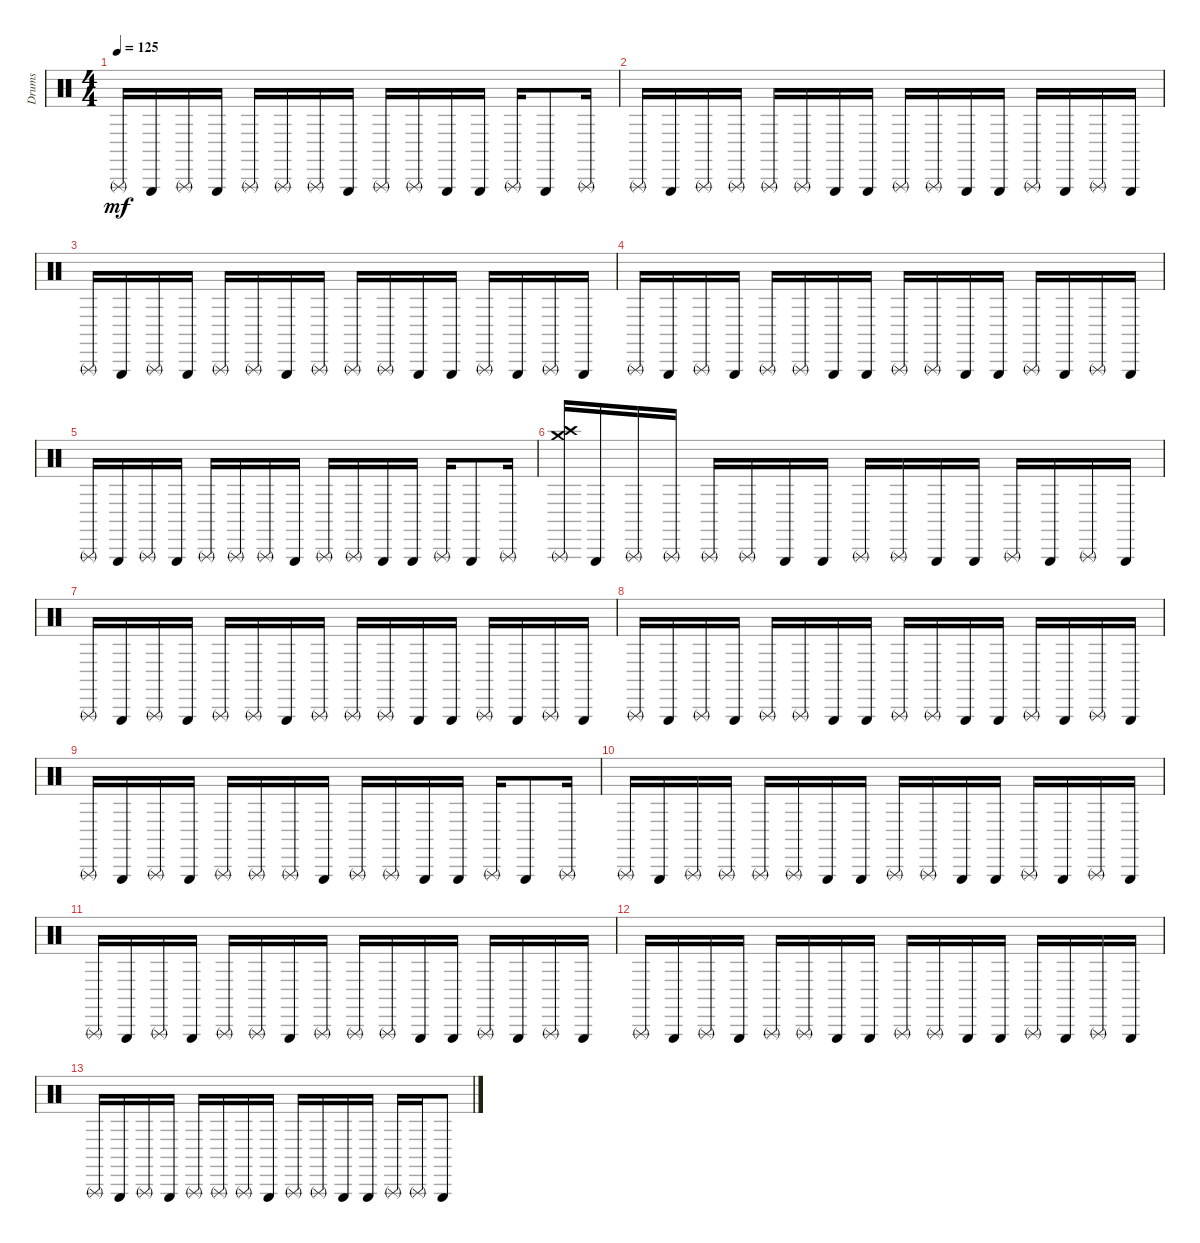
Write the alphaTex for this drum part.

\track ("Drums" "Drums") {instrument percussion}
\staff {score}
\articulation defaults
\ts (4 4)
\tempo 125
\clef neutral
\ks c "Triangle (rnute)".16{dy mf} "Triangle (hit)".16 "Triangle (rnute)".16 "Triangle (hit)".16 "Triangle (rnute)".16 "Triangle (rnute)".16 "Triangle (rnute)".16 "Triangle (hit)".16 "Triangle (rnute)".16 "Triangle (rnute)".16 "Triangle (hit)".16 "Triangle (hit)".16 "Triangle (rnute)".16 "Triangle (hit)".8 "Triangle (rnute)".16
|
"Triangle (rnute)".16 "Triangle (hit)".16 "Triangle (rnute)".16 "Triangle (rnute)".16 "Triangle (rnute)".16 "Triangle (rnute)".16 "Triangle (hit)".16 "Triangle (hit)".16 "Triangle (rnute)".16 "Triangle (rnute)".16 "Triangle (hit)".16 "Triangle (hit)".16 "Triangle (rnute)".16 "Triangle (hit)".16 "Triangle (rnute)".16 "Triangle (hit)".16 |
"Triangle (rnute)".16 "Triangle (hit)".16 "Triangle (rnute)".16 "Triangle (hit)".16 "Triangle (rnute)".16 "Triangle (rnute)".16 "Triangle (hit)".16 "Triangle (rnute)".16 "Triangle (rnute)".16 "Triangle (rnute)".16 "Triangle (hit)".16 "Triangle (hit)".16 "Triangle (rnute)".16 "Triangle (hit)".16 "Triangle (rnute)".16 "Triangle (hit)".16 |
"Triangle (rnute)".16 "Triangle (hit)".16 "Triangle (rnute)".16 "Triangle (hit)".16 "Triangle (rnute)".16 "Triangle (rnute)".16 "Triangle (hit)".16 "Triangle (hit)".16 "Triangle (rnute)".16 "Triangle (rnute)".16 "Triangle (hit)".16 "Triangle (hit)".16 "Triangle (rnute)".16 "Triangle (hit)".16 "Triangle (rnute)".16 "Triangle (hit)".16 |
"Triangle (rnute)".16 "Triangle (hit)".16 "Triangle (rnute)".16 "Triangle (hit)".16 "Triangle (rnute)".16 "Triangle (rnute)".16 "Triangle (rnute)".16 "Triangle (hit)".16 "Triangle (rnute)".16 "Triangle (rnute)".16 "Triangle (hit)".16 "Triangle (hit)".16 "Triangle (rnute)".16 "Triangle (hit)".8 "Triangle (rnute)".16 |
("Triangle (rnute)" "Crash high (hit)" "Crash medium (hit)").16 "Triangle (hit)".16 "Triangle (rnute)".16 "Triangle (rnute)".16 "Triangle (rnute)".16 "Triangle (rnute)".16 "Triangle (hit)".16 "Triangle (hit)".16 "Triangle (rnute)".16 "Triangle (rnute)".16 "Triangle (hit)".16 "Triangle (hit)".16 "Triangle (rnute)".16 "Triangle (hit)".16 "Triangle (rnute)".16 "Triangle (hit)".16 |
"Triangle (rnute)".16 "Triangle (hit)".16 "Triangle (rnute)".16 "Triangle (hit)".16 "Triangle (rnute)".16 "Triangle (rnute)".16 "Triangle (hit)".16 "Triangle (rnute)".16 "Triangle (rnute)".16 "Triangle (rnute)".16 "Triangle (hit)".16 "Triangle (hit)".16 "Triangle (rnute)".16 "Triangle (hit)".16 "Triangle (rnute)".16 "Triangle (hit)".16 |
"Triangle (rnute)".16 "Triangle (hit)".16 "Triangle (rnute)".16 "Triangle (hit)".16 "Triangle (rnute)".16 "Triangle (rnute)".16 "Triangle (hit)".16 "Triangle (hit)".16 "Triangle (rnute)".16 "Triangle (rnute)".16 "Triangle (hit)".16 "Triangle (hit)".16 "Triangle (rnute)".16 "Triangle (hit)".16 "Triangle (rnute)".16 "Triangle (hit)".16 |
"Triangle (rnute)".16 "Triangle (hit)".16 "Triangle (rnute)".16 "Triangle (hit)".16 "Triangle (rnute)".16 "Triangle (rnute)".16 "Triangle (rnute)".16 "Triangle (hit)".16 "Triangle (rnute)".16 "Triangle (rnute)".16 "Triangle (hit)".16 "Triangle (hit)".16 "Triangle (rnute)".16 "Triangle (hit)".8 "Triangle (rnute)".16 |
"Triangle (rnute)".16 "Triangle (hit)".16 "Triangle (rnute)".16 "Triangle (rnute)".16 "Triangle (rnute)".16 "Triangle (rnute)".16 "Triangle (hit)".16 "Triangle (hit)".16 "Triangle (rnute)".16 "Triangle (rnute)".16 "Triangle (hit)".16 "Triangle (hit)".16 "Triangle (rnute)".16 "Triangle (hit)".16 "Triangle (rnute)".16 "Triangle (hit)".16 |
"Triangle (rnute)".16 "Triangle (hit)".16 "Triangle (rnute)".16 "Triangle (hit)".16 "Triangle (rnute)".16 "Triangle (rnute)".16 "Triangle (hit)".16 "Triangle (rnute)".16 "Triangle (rnute)".16 "Triangle (rnute)".16 "Triangle (hit)".16 "Triangle (hit)".16 "Triangle (rnute)".16 "Triangle (hit)".16 "Triangle (rnute)".16 "Triangle (hit)".16 |
"Triangle (rnute)".16 "Triangle (hit)".16 "Triangle (rnute)".16 "Triangle (hit)".16 "Triangle (rnute)".16 "Triangle (rnute)".16 "Triangle (hit)".16 "Triangle (hit)".16 "Triangle (rnute)".16 "Triangle (rnute)".16 "Triangle (hit)".16 "Triangle (hit)".16 "Triangle (rnute)".16 "Triangle (hit)".16 "Triangle (rnute)".16 "Triangle (hit)".16 |
"Triangle (rnute)".16 "Triangle (hit)".16 "Triangle (rnute)".16 "Triangle (hit)".16 "Triangle (rnute)".16 "Triangle (rnute)".16 "Triangle (rnute)".16 "Triangle (hit)".16 "Triangle (rnute)".16 "Triangle (rnute)".16 "Triangle (hit)".16 "Triangle (hit)".16 "Triangle (rnute)".16 "Triangle (rnute)".16 "Triangle (hit)".8
